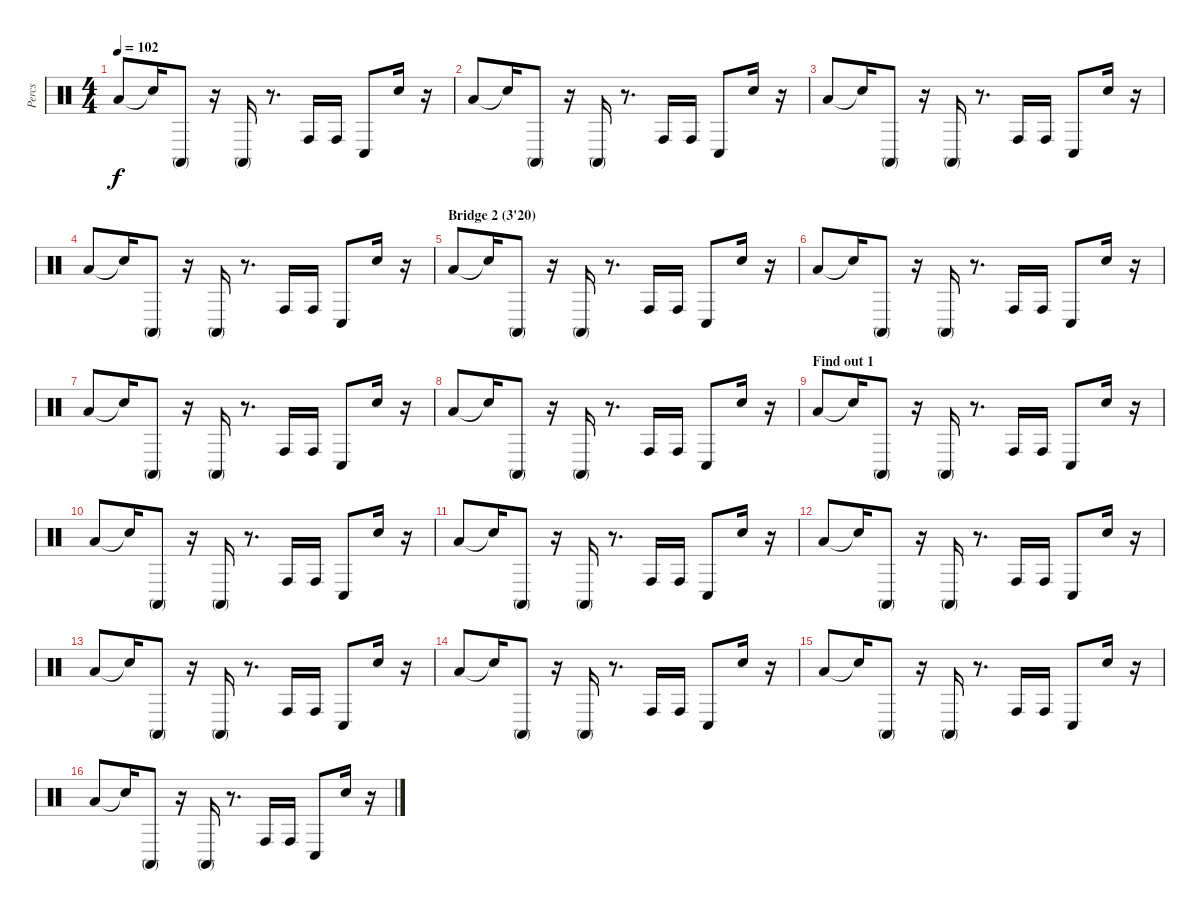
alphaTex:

\track ("Percs" "Percs") {instrument percussion}
\staff {score}
\articulation defaults
\ts (4 4)
\tempo 102
\clef neutral
\ks c "Low Floor Tom (hit)".8{dy f} "Snare (hit)"{t}.16 "Conga high (mute)".8
r.16 "Conga high (mute)".16 r.8{d} "Conga high (hit)".16 "Conga high (hit)".16 "Conga low (hit)".8 "Hand Clap (hit)".16 r.16 |
"Low Floor Tom (hit)".8 "Snare (hit)"{t}.16 "Conga high (mute)".8 r.16 "Conga high (mute)".16 r.8{d} "Conga high (hit)".16 "Conga high (hit)".16 "Conga low (hit)".8 "Hand Clap (hit)".16 r.16 |
"Low Floor Tom (hit)".8 "Snare (hit)"{t}.16 "Conga high (mute)".8 r.16 "Conga high (mute)".16 r.8{d} "Conga high (hit)".16 "Conga high (hit)".16 "Conga low (hit)".8 "Hand Clap (hit)".16 r.16 |
"Low Floor Tom (hit)".8 "Snare (hit)"{t}.16 "Conga high (mute)".8 r.16 "Conga high (mute)".16 r.8{d} "Conga high (hit)".16 "Conga high (hit)".16 "Conga low (hit)".8 "Hand Clap (hit)".16 r.16 |
\section ("" "Bridge 2 (3'20)")
"Low Floor Tom (hit)".8 "Snare (hit)"{t}.16 "Conga high (mute)".8 r.16 "Conga high (mute)".16 r.8{d} "Conga high (hit)".16 "Conga high (hit)".16 "Conga low (hit)".8 "Hand Clap (hit)".16 r.16 |
"Low Floor Tom (hit)".8 "Snare (hit)"{t}.16 "Conga high (mute)".8 r.16 "Conga high (mute)".16 r.8{d} "Conga high (hit)".16 "Conga high (hit)".16 "Conga low (hit)".8 "Hand Clap (hit)".16 r.16 |
"Low Floor Tom (hit)".8 "Snare (hit)"{t}.16 "Conga high (mute)".8 r.16 "Conga high (mute)".16 r.8{d} "Conga high (hit)".16 "Conga high (hit)".16 "Conga low (hit)".8 "Hand Clap (hit)".16 r.16 |
"Low Floor Tom (hit)".8 "Snare (hit)"{t}.16 "Conga high (mute)".8 r.16 "Conga high (mute)".16 r.8{d} "Conga high (hit)".16 "Conga high (hit)".16 "Conga low (hit)".8 "Hand Clap (hit)".16 r.16 |
\section ("" "Find out 1")
"Low Floor Tom (hit)".8 "Snare (hit)"{t}.16 "Conga high (mute)".8 r.16 "Conga high (mute)".16 r.8{d} "Conga high (hit)".16 "Conga high (hit)".16 "Conga low (hit)".8 "Hand Clap (hit)".16 r.16 |
"Low Floor Tom (hit)".8 "Snare (hit)"{t}.16 "Conga high (mute)".8 r.16 "Conga high (mute)".16 r.8{d} "Conga high (hit)".16 "Conga high (hit)".16 "Conga low (hit)".8 "Hand Clap (hit)".16 r.16 |
"Low Floor Tom (hit)".8 "Snare (hit)"{t}.16 "Conga high (mute)".8 r.16 "Conga high (mute)".16 r.8{d} "Conga high (hit)".16 "Conga high (hit)".16 "Conga low (hit)".8 "Hand Clap (hit)".16 r.16 |
"Low Floor Tom (hit)".8 "Snare (hit)"{t}.16 "Conga high (mute)".8 r.16 "Conga high (mute)".16 r.8{d} "Conga high (hit)".16 "Conga high (hit)".16 "Conga low (hit)".8 "Hand Clap (hit)".16 r.16 |
"Low Floor Tom (hit)".8 "Snare (hit)"{t}.16 "Conga high (mute)".8 r.16 "Conga high (mute)".16 r.8{d} "Conga high (hit)".16 "Conga high (hit)".16 "Conga low (hit)".8 "Hand Clap (hit)".16 r.16 |
"Low Floor Tom (hit)".8 "Snare (hit)"{t}.16 "Conga high (mute)".8 r.16 "Conga high (mute)".16 r.8{d} "Conga high (hit)".16 "Conga high (hit)".16 "Conga low (hit)".8 "Hand Clap (hit)".16 r.16 |
"Low Floor Tom (hit)".8 "Snare (hit)"{t}.16 "Conga high (mute)".8 r.16 "Conga high (mute)".16 r.8{d} "Conga high (hit)".16 "Conga high (hit)".16 "Conga low (hit)".8 "Hand Clap (hit)".16 r.16 |
"Low Floor Tom (hit)".8 "Snare (hit)"{t}.16 "Conga high (mute)".8 r.16 "Conga high (mute)".16 r.8{d} "Conga high (hit)".16 "Conga high (hit)".16 "Conga low (hit)".8 "Hand Clap (hit)".16 r.16
